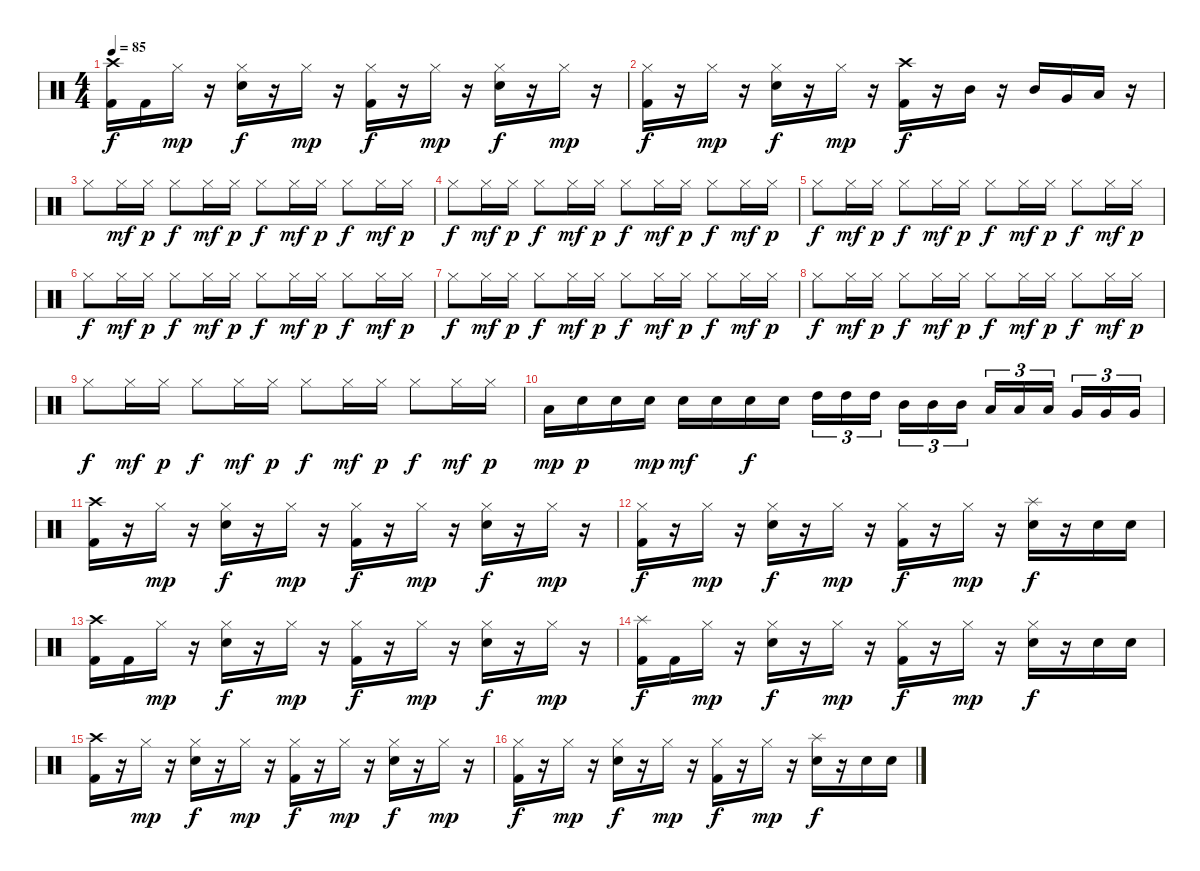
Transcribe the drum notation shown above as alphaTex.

\track ("              Stefff" "          ") {instrument percussion}
\staff {score}
\articulation defaults
\ts (4 4)
\tempo 85
\clef neutral
\ks c
("Kick (hit) 2" "Crash high (hit)").16{dy f} "Kick (hit) 2".16 "Hi-Hat (closed)".16{dy mp} r.16 ("Hi-Hat (closed)" "Snare (hit) 2").16{dy f} r.16 "Hi-Hat (closed)".16{dy mp} r.16 ("Hi-Hat (closed)" "Kick (hit) 2").16{dy f} r.16 "Hi-Hat (closed)".16{dy mp} r.16 ("Hi-Hat (closed)" "Snare (hit) 2").16{dy f} r.16 "Hi-Hat (closed)".16{dy mp} r.16 |
("Kick (hit) 2" "Hi-Hat (closed)").16{dy f} r.16 "Hi-Hat (closed)".16{dy mp} r.16 ("Hi-Hat (closed)" "Snare (hit) 2").16{dy f} r.16 "Hi-Hat (closed)".16{dy mp} r.16 ("Crash high (hit)" "Kick (hit) 2").16{dy f} r.16 "Mid Tom (hit)".16 r.16 "Mid Tom (hit)".16 "Very Low Tom (hit)".16 "Low Floor Tom (hit)".16 r.16 |
"Hi-Hat (closed)".8 "Hi-Hat (closed)".16{dy mf} "Hi-Hat (closed)".16{dy p} "Hi-Hat (closed)".8{dy f} "Hi-Hat (closed)".16{dy mf} "Hi-Hat (closed)".16{dy p} "Hi-Hat (closed)".8{dy f} "Hi-Hat (closed)".16{dy mf} "Hi-Hat (closed)".16{dy p} "Hi-Hat (closed)".8{dy f} "Hi-Hat (closed)".16{dy mf} "Hi-Hat (closed)".16{dy p} |
"Hi-Hat (closed)".8{dy f} "Hi-Hat (closed)".16{dy mf} "Hi-Hat (closed)".16{dy p} "Hi-Hat (closed)".8{dy f} "Hi-Hat (closed)".16{dy mf} "Hi-Hat (closed)".16{dy p} "Hi-Hat (closed)".8{dy f} "Hi-Hat (closed)".16{dy mf} "Hi-Hat (closed)".16{dy p} "Hi-Hat (closed)".8{dy f} "Hi-Hat (closed)".16{dy mf} "Hi-Hat (closed)".16{dy p} |
"Hi-Hat (closed)".8{dy f} "Hi-Hat (closed)".16{dy mf} "Hi-Hat (closed)".16{dy p} "Hi-Hat (closed)".8{dy f} "Hi-Hat (closed)".16{dy mf} "Hi-Hat (closed)".16{dy p} "Hi-Hat (closed)".8{dy f} "Hi-Hat (closed)".16{dy mf} "Hi-Hat (closed)".16{dy p} "Hi-Hat (closed)".8{dy f} "Hi-Hat (closed)".16{dy mf} "Hi-Hat (closed)".16{dy p} |
"Hi-Hat (closed)".8{dy f} "Hi-Hat (closed)".16{dy mf} "Hi-Hat (closed)".16{dy p} "Hi-Hat (closed)".8{dy f} "Hi-Hat (closed)".16{dy mf} "Hi-Hat (closed)".16{dy p} "Hi-Hat (closed)".8{dy f} "Hi-Hat (closed)".16{dy mf} "Hi-Hat (closed)".16{dy p} "Hi-Hat (closed)".8{dy f} "Hi-Hat (closed)".16{dy mf} "Hi-Hat (closed)".16{dy p} |
"Hi-Hat (closed)".8{dy f} "Hi-Hat (closed)".16{dy mf} "Hi-Hat (closed)".16{dy p} "Hi-Hat (closed)".8{dy f} "Hi-Hat (closed)".16{dy mf} "Hi-Hat (closed)".16{dy p} "Hi-Hat (closed)".8{dy f} "Hi-Hat (closed)".16{dy mf} "Hi-Hat (closed)".16{dy p} "Hi-Hat (closed)".8{dy f} "Hi-Hat (closed)".16{dy mf} "Hi-Hat (closed)".16{dy p} |
"Hi-Hat (closed)".8{dy f} "Hi-Hat (closed)".16{dy mf} "Hi-Hat (closed)".16{dy p} "Hi-Hat (closed)".8{dy f} "Hi-Hat (closed)".16{dy mf} "Hi-Hat (closed)".16{dy p} "Hi-Hat (closed)".8{dy f} "Hi-Hat (closed)".16{dy mf} "Hi-Hat (closed)".16{dy p} "Hi-Hat (closed)".8{dy f} "Hi-Hat (closed)".16{dy mf} "Hi-Hat (closed)".16{dy p} |
"Hi-Hat (closed)".8{dy f} "Hi-Hat (closed)".16{dy mf} "Hi-Hat (closed)".16{dy p} "Hi-Hat (closed)".8{dy f} "Hi-Hat (closed)".16{dy mf} "Hi-Hat (closed)".16{dy p} "Hi-Hat (closed)".8{dy f} "Hi-Hat (closed)".16{dy mf} "Hi-Hat (closed)".16{dy p} "Hi-Hat (closed)".8{dy f} "Hi-Hat (closed)".16{dy mf} "Hi-Hat (closed)".16{dy p} |
"Low Tom (hit)".16{dy mp} "Snare (hit) 2".16{dy p} "Snare (hit) 2".16 "Snare (hit) 2".16{dy mp} "Snare (hit) 2".16{dy mf} "Snare (hit) 2".16 "Snare (hit) 2".16{dy f} "Snare (hit) 2".16 "High Tom (hit)".16{tu (3 2)} "High Tom (hit)".16{tu (3 2)} "High Tom (hit)".16{tu (3 2)} "Mid Tom (hit)".16{tu (3 2)} "Mid Tom (hit)".16{tu (3 2)} "Mid Tom (hit)".16{tu (3 2)} "Low Tom (hit)".16{tu (3 2)} "Low Tom (hit)".16{tu (3 2)} "Low Tom (hit)".16{tu (3 2)} "Very Low Tom (hit)".16{tu (3 2)} "Very Low Tom (hit)".16{tu (3 2)} "Very Low Tom (hit)".16{tu (3 2)} |
("Kick (hit) 2" "Crash high (hit)").16 r.16 "Hi-Hat (closed)".16{dy mp} r.16 ("Hi-Hat (closed)" "Snare (hit) 2").16{dy f} r.16 "Hi-Hat (closed)".16{dy mp} r.16 ("Hi-Hat (closed)" "Kick (hit) 2").16{dy f} r.16 "Hi-Hat (closed)".16{dy mp} r.16 ("Hi-Hat (closed)" "Snare (hit) 2").16{dy f} r.16 "Hi-Hat (closed)".16{dy mp} r.16 |
("Kick (hit) 2" "Hi-Hat (closed)").16{dy f} r.16 "Hi-Hat (closed)".16{dy mp} r.16 ("Hi-Hat (closed)" "Snare (hit) 2").16{dy f} r.16 "Hi-Hat (closed)".16{dy mp} r.16 ("Hi-Hat (closed)" "Kick (hit) 2").16{dy f} r.16 "Hi-Hat (closed)".16{dy mp} r.16 ("Splash (hit)" "Snare (hit) 2").16{dy f} r.16 "Snare (hit) 2".16 "Snare (hit) 2".16 |
("Kick (hit) 2" "Crash high (hit)").16 "Kick (hit) 2".16 "Hi-Hat (closed)".16{dy mp} r.16 ("Hi-Hat (closed)" "Snare (hit) 2").16{dy f} r.16 "Hi-Hat (closed)".16{dy mp} r.16 ("Hi-Hat (closed)" "Kick (hit) 2").16{dy f} r.16 "Hi-Hat (closed)".16{dy mp} r.16 ("Hi-Hat (closed)" "Snare (hit) 2").16{dy f} r.16 "Hi-Hat (closed)".16{dy mp} r.16 |
("Kick (hit) 2" "Splash (hit)").16{dy f} "Kick (hit) 2".16 "Hi-Hat (closed)".16{dy mp} r.16 ("Hi-Hat (closed)" "Snare (hit) 2").16{dy f} r.16 "Hi-Hat (closed)".16{dy mp} r.16 ("Hi-Hat (closed)" "Kick (hit) 2").16{dy f} r.16 "Hi-Hat (closed)".16{dy mp} r.16 ("Hi-Hat (closed)" "Snare (hit) 2").16{dy f} r.16 "Snare (hit) 2".16 "Snare (hit) 2".16 |
("Kick (hit) 2" "Crash high (hit)").16 r.16 "Hi-Hat (closed)".16{dy mp} r.16 ("Hi-Hat (closed)" "Snare (hit) 2").16{dy f} r.16 "Hi-Hat (closed)".16{dy mp} r.16 ("Hi-Hat (closed)" "Kick (hit) 2").16{dy f} r.16 "Hi-Hat (closed)".16{dy mp} r.16 ("Hi-Hat (closed)" "Snare (hit) 2").16{dy f} r.16 "Hi-Hat (closed)".16{dy mp} r.16 |
("Kick (hit) 2" "Hi-Hat (closed)").16{dy f} r.16 "Hi-Hat (closed)".16{dy mp} r.16 ("Hi-Hat (closed)" "Snare (hit) 2").16{dy f} r.16 "Hi-Hat (closed)".16{dy mp} r.16 ("Hi-Hat (closed)" "Kick (hit) 2").16{dy f} r.16 "Hi-Hat (closed)".16{dy mp} r.16 ("Splash (hit)" "Snare (hit) 2").16{dy f} r.16 "Snare (hit) 2".16 "Snare (hit) 2".16
